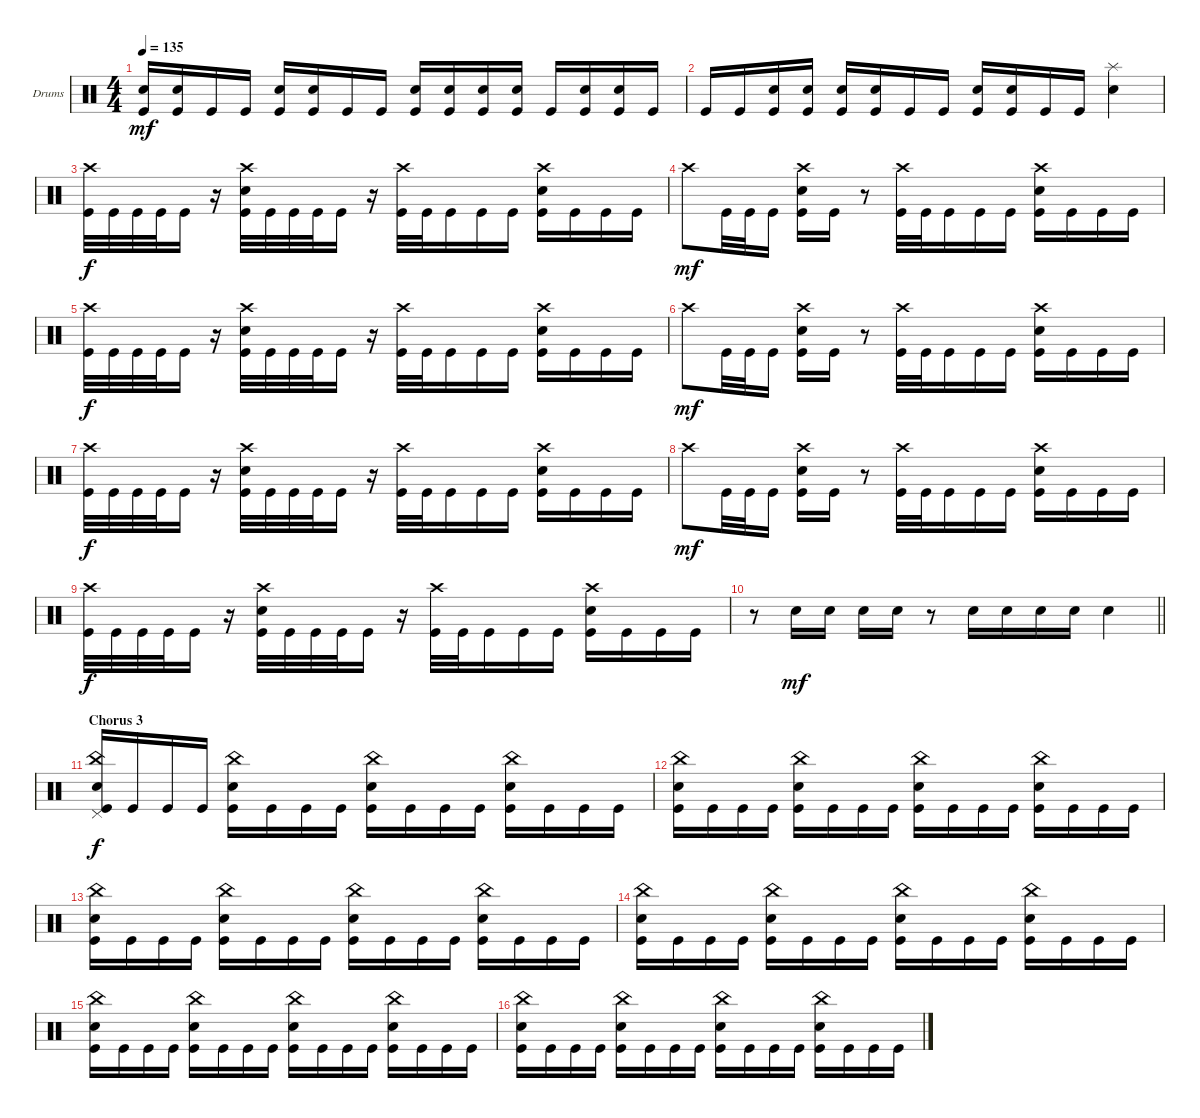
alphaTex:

\bracketExtendMode groupsimilarinstruments
\firstSystemTrackNameOrientation horizontal
\otherSystemsTrackNameOrientation horizontal
\track ("Drumkit" "Drums") {instrument percussion}
\staff {score}
\articulation defaults
\ts (4 4)
\tempo 135
\clef neutral
\ks c
("Snare (hit) 2" "Kick (hit)").16{dy mf} ("Snare (hit) 2" "Kick (hit)").16 "Kick (hit)".16 "Kick (hit)".16 ("Snare (hit) 2" "Kick (hit)").16 ("Snare (hit) 2" "Kick (hit)").16 "Kick (hit)".16 "Kick (hit)".16 ("Snare (hit) 2" "Kick (hit)").16 ("Snare (hit) 2" "Kick (hit)").16 ("Snare (hit) 2" "Kick (hit)").16 ("Snare (hit) 2" "Kick (hit)").16 "Kick (hit)".16 ("Snare (hit) 2" "Kick (hit)").16 ("Snare (hit) 2" "Kick (hit)").16 "Kick (hit)".16 |
"Kick (hit)".16 "Kick (hit)".16 ("Snare (hit) 2" "Kick (hit)").16 ("Snare (hit) 2" "Kick (hit)").16 ("Snare (hit) 2" "Kick (hit)").16 ("Snare (hit) 2" "Kick (hit)").16 "Kick (hit)".16 "Kick (hit)".16 ("Snare (hit) 2" "Kick (hit)").16 ("Snare (hit) 2" "Kick (hit)").16 "Kick (hit)".16 "Kick (hit)".16 ("Snare (hit) 2" "Splash (hit)").4 |
("Kick (hit)" "Crash high (hit)").32{dy f} "Kick (hit)".32 "Kick (hit)".32 "Kick (hit)".32 "Kick (hit)".16 r.16 ("Kick (hit)" "Crash high (hit)" "Snare (hit) 2").32 "Kick (hit)".32 "Kick (hit)".32 "Kick (hit)".32 "Kick (hit)".16 r.16 ("Kick (hit)" "Crash high (hit)").32 "Kick (hit)".32 "Kick (hit)".16 "Kick (hit)".16 "Kick (hit)".16 ("Kick (hit)" "Crash high (hit)" "Snare (hit) 2").16 "Kick (hit)".16 "Kick (hit)".16 "Kick (hit)".16 |
"Crash high (hit)".8{dy mf} "Kick (hit)".32 "Kick (hit)".32 "Kick (hit)".16 ("Kick (hit)" "Snare (hit) 2" "Crash high (hit)").16 "Kick (hit)".16 r.8 ("Kick (hit)" "Crash high (hit)").32 "Kick (hit)".32 "Kick (hit)".16 "Kick (hit)".16 "Kick (hit)".16 ("Kick (hit)" "Crash high (hit)" "Snare (hit) 2").16 "Kick (hit)".16 "Kick (hit)".16 "Kick (hit)".16 |
("Kick (hit)" "Crash high (hit)").32{dy f} "Kick (hit)".32 "Kick (hit)".32 "Kick (hit)".32 "Kick (hit)".16 r.16 ("Kick (hit)" "Crash high (hit)" "Snare (hit) 2").32 "Kick (hit)".32 "Kick (hit)".32 "Kick (hit)".32 "Kick (hit)".16 r.16 ("Kick (hit)" "Crash high (hit)").32 "Kick (hit)".32 "Kick (hit)".16 "Kick (hit)".16 "Kick (hit)".16 ("Kick (hit)" "Crash high (hit)" "Snare (hit) 2").16 "Kick (hit)".16 "Kick (hit)".16 "Kick (hit)".16 |
"Crash high (hit)".8{dy mf} "Kick (hit)".32 "Kick (hit)".32 "Kick (hit)".16 ("Kick (hit)" "Snare (hit) 2" "Crash high (hit)").16 "Kick (hit)".16 r.8 ("Kick (hit)" "Crash high (hit)").32 "Kick (hit)".32 "Kick (hit)".16 "Kick (hit)".16 "Kick (hit)".16 ("Kick (hit)" "Crash high (hit)" "Snare (hit) 2").16 "Kick (hit)".16 "Kick (hit)".16 "Kick (hit)".16 |
("Kick (hit)" "Crash high (hit)").32{dy f} "Kick (hit)".32 "Kick (hit)".32 "Kick (hit)".32 "Kick (hit)".16 r.16 ("Kick (hit)" "Crash high (hit)" "Snare (hit) 2").32 "Kick (hit)".32 "Kick (hit)".32 "Kick (hit)".32 "Kick (hit)".16 r.16 ("Kick (hit)" "Crash high (hit)").32 "Kick (hit)".32 "Kick (hit)".16 "Kick (hit)".16 "Kick (hit)".16 ("Kick (hit)" "Crash high (hit)" "Snare (hit) 2").16 "Kick (hit)".16 "Kick (hit)".16 "Kick (hit)".16 |
"Crash high (hit)".8{dy mf} "Kick (hit)".32 "Kick (hit)".32 "Kick (hit)".16 ("Kick (hit)" "Snare (hit) 2" "Crash high (hit)").16 "Kick (hit)".16 r.8 ("Kick (hit)" "Crash high (hit)").32 "Kick (hit)".32 "Kick (hit)".16 "Kick (hit)".16 "Kick (hit)".16 ("Kick (hit)" "Crash high (hit)" "Snare (hit) 2").16 "Kick (hit)".16 "Kick (hit)".16 "Kick (hit)".16 |
("Kick (hit)" "Crash high (hit)").32{dy f} "Kick (hit)".32 "Kick (hit)".32 "Kick (hit)".32 "Kick (hit)".16 r.16 ("Kick (hit)" "Crash high (hit)" "Snare (hit) 2").32 "Kick (hit)".32 "Kick (hit)".32 "Kick (hit)".32 "Kick (hit)".16 r.16 ("Kick (hit)" "Crash high (hit)").32 "Kick (hit)".32 "Kick (hit)".16 "Kick (hit)".16 "Kick (hit)".16 ("Kick (hit)" "Crash high (hit)" "Snare (hit) 2").16 "Kick (hit)".16 "Kick (hit)".16 "Kick (hit)".16 |
\barLineRight lightlight
r.8 "Snare (hit) 2".16{dy mf} "Snare (hit) 2".16 "Snare (hit) 2".16 "Snare (hit) 2".16 r.8 "Snare (hit) 2".16 "Snare (hit) 2".16 "Snare (hit) 2".16 "Snare (hit) 2".16 "Snare (hit) 2".4 |
\section ("" "Chorus 3")
("Kick (hit)" "Snare (hit) 2" "China (hit)" "Pedal Hi-Hat (hit)").16{dy f} "Kick (hit)".16 "Kick (hit)".16 "Kick (hit)".16 ("Kick (hit)" "Snare (hit) 2" "China (hit)").16 "Kick (hit)".16 "Kick (hit)".16 "Kick (hit)".16 ("Kick (hit)" "Snare (hit) 2" "China (hit)").16 "Kick (hit)".16 "Kick (hit)".16 "Kick (hit)".16 ("Kick (hit)" "Snare (hit) 2" "China (hit)").16 "Kick (hit)".16 "Kick (hit)".16 "Kick (hit)".16 |
("Kick (hit)" "Snare (hit) 2" "China (hit)").16 "Kick (hit)".16 "Kick (hit)".16 "Kick (hit)".16 ("Kick (hit)" "Snare (hit) 2" "China (hit)").16 "Kick (hit)".16 "Kick (hit)".16 "Kick (hit)".16 ("Kick (hit)" "Snare (hit) 2" "China (hit)").16 "Kick (hit)".16 "Kick (hit)".16 "Kick (hit)".16 ("Kick (hit)" "Snare (hit) 2" "China (hit)").16 "Kick (hit)".16 "Kick (hit)".16 "Kick (hit)".16 |
("Kick (hit)" "Snare (hit) 2" "China (hit)").16 "Kick (hit)".16 "Kick (hit)".16 "Kick (hit)".16 ("Kick (hit)" "Snare (hit) 2" "China (hit)").16 "Kick (hit)".16 "Kick (hit)".16 "Kick (hit)".16 ("Kick (hit)" "Snare (hit) 2" "China (hit)").16 "Kick (hit)".16 "Kick (hit)".16 "Kick (hit)".16 ("Kick (hit)" "Snare (hit) 2" "China (hit)").16 "Kick (hit)".16 "Kick (hit)".16 "Kick (hit)".16 |
("Kick (hit)" "Snare (hit) 2" "China (hit)").16 "Kick (hit)".16 "Kick (hit)".16 "Kick (hit)".16 ("Kick (hit)" "Snare (hit) 2" "China (hit)").16 "Kick (hit)".16 "Kick (hit)".16 "Kick (hit)".16 ("Kick (hit)" "Snare (hit) 2" "China (hit)").16 "Kick (hit)".16 "Kick (hit)".16 "Kick (hit)".16 ("Kick (hit)" "Snare (hit) 2" "China (hit)").16 "Kick (hit)".16 "Kick (hit)".16 "Kick (hit)".16 |
("Kick (hit)" "Snare (hit) 2" "China (hit)").16 "Kick (hit)".16 "Kick (hit)".16 "Kick (hit)".16 ("Kick (hit)" "Snare (hit) 2" "China (hit)").16 "Kick (hit)".16 "Kick (hit)".16 "Kick (hit)".16 ("Kick (hit)" "Snare (hit) 2" "China (hit)").16 "Kick (hit)".16 "Kick (hit)".16 "Kick (hit)".16 ("Kick (hit)" "Snare (hit) 2" "China (hit)").16 "Kick (hit)".16 "Kick (hit)".16 "Kick (hit)".16 |
("Kick (hit)" "Snare (hit) 2" "China (hit)").16 "Kick (hit)".16 "Kick (hit)".16 "Kick (hit)".16 ("Kick (hit)" "Snare (hit) 2" "China (hit)").16 "Kick (hit)".16 "Kick (hit)".16 "Kick (hit)".16 ("Kick (hit)" "Snare (hit) 2" "China (hit)").16 "Kick (hit)".16 "Kick (hit)".16 "Kick (hit)".16 ("Kick (hit)" "Snare (hit) 2" "China (hit)").16 "Kick (hit)".16 "Kick (hit)".16 "Kick (hit)".16
